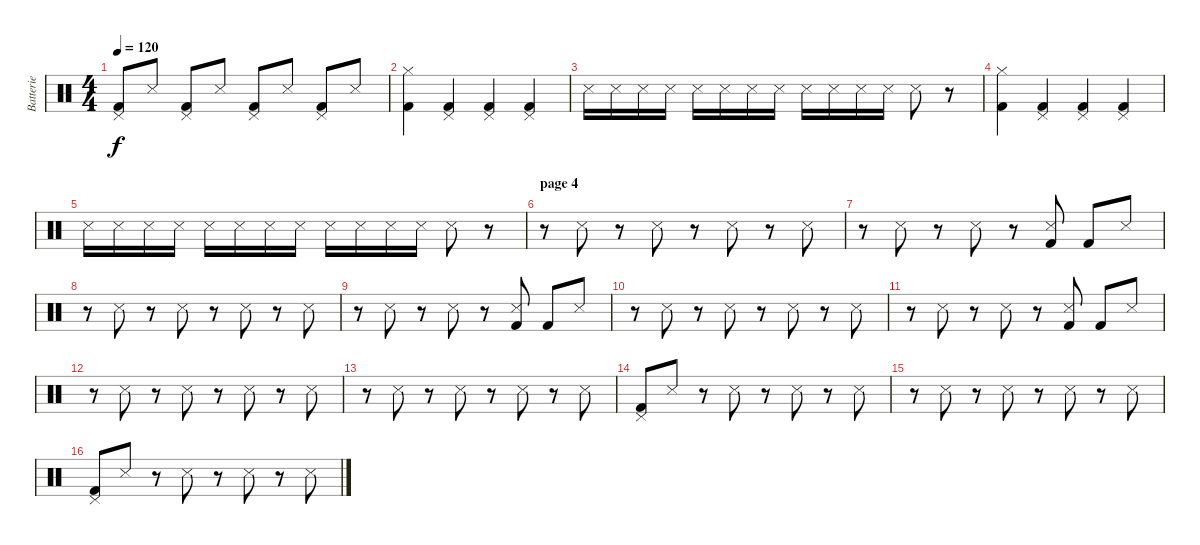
\track ("Batterie" "Batterie") {instrument percussion}
\staff {score}
\articulation defaults
\ts (4 4)
\tempo 120
\clef neutral
\ks c
("Pedal Hi-Hat (hit)" "Kick (hit) 2").8{dy f} "Snare (side stick) 3".8 ("Pedal Hi-Hat (hit)" "Kick (hit) 2").8 "Snare (side stick) 3".8 ("Pedal Hi-Hat (hit)" "Kick (hit) 2").8 "Snare (side stick) 3".8 ("Pedal Hi-Hat (hit)" "Kick (hit) 2").8 "Snare (side stick) 3".8 |
("Hi-Hat (closed)" "Kick (hit) 2").4 ("Pedal Hi-Hat (hit)" "Kick (hit) 2").4 ("Pedal Hi-Hat (hit)" "Kick (hit) 2").4 ("Pedal Hi-Hat (hit)" "Kick (hit) 2").4 |
"Snare (side stick) 3".16 "Snare (side stick) 3".16 "Snare (side stick) 3".16 "Snare (side stick) 3".16 "Snare (side stick) 3".16 "Snare (side stick) 3".16 "Snare (side stick) 3".16 "Snare (side stick) 3".16 "Snare (side stick) 3".16 "Snare (side stick) 3".16 "Snare (side stick) 3".16 "Snare (side stick) 3".16 "Snare (side stick) 3".8 r.8 |
("Hi-Hat (closed)" "Kick (hit) 2").4 ("Pedal Hi-Hat (hit)" "Kick (hit) 2").4 ("Pedal Hi-Hat (hit)" "Kick (hit) 2").4 ("Pedal Hi-Hat (hit)" "Kick (hit) 2").4 |
"Snare (side stick) 3".16 "Snare (side stick) 3".16 "Snare (side stick) 3".16 "Snare (side stick) 3".16 "Snare (side stick) 3".16 "Snare (side stick) 3".16 "Snare (side stick) 3".16 "Snare (side stick) 3".16 "Snare (side stick) 3".16 "Snare (side stick) 3".16 "Snare (side stick) 3".16 "Snare (side stick) 3".16 "Snare (side stick) 3".8 r.8 |
\section ("" "page 4")
r.8 "Snare (side stick) 3".8 r.8 "Snare (side stick) 3".8 r.8 "Snare (side stick) 3".8 r.8 "Snare (side stick) 3".8 |
r.8 "Snare (side stick) 3".8 r.8 "Snare (side stick) 3".8 r.8 ("Snare (side stick) 3" "Kick (hit) 2").8 "Kick (hit) 2".8 "Snare (side stick) 3".8 |
r.8 "Snare (side stick) 3".8 r.8 "Snare (side stick) 3".8 r.8 "Snare (side stick) 3".8 r.8 "Snare (side stick) 3".8 |
r.8 "Snare (side stick) 3".8 r.8 "Snare (side stick) 3".8 r.8 ("Snare (side stick) 3" "Kick (hit) 2").8 "Kick (hit) 2".8 "Snare (side stick) 3".8 |
r.8 "Snare (side stick) 3".8 r.8 "Snare (side stick) 3".8 r.8 "Snare (side stick) 3".8 r.8 "Snare (side stick) 3".8 |
r.8 "Snare (side stick) 3".8 r.8 "Snare (side stick) 3".8 r.8 ("Snare (side stick) 3" "Kick (hit) 2").8 "Kick (hit) 2".8 "Snare (side stick) 3".8 |
r.8 "Snare (side stick) 3".8 r.8 "Snare (side stick) 3".8 r.8 "Snare (side stick) 3".8 r.8 "Snare (side stick) 3".8 |
r.8 "Snare (side stick) 3".8 r.8 "Snare (side stick) 3".8 r.8 "Snare (side stick) 3".8 r.8 "Snare (side stick) 3".8 |
("Pedal Hi-Hat (hit)" "Kick (hit) 2").8 "Snare (side stick) 3".8 r.8 "Snare (side stick) 3".8 r.8 "Snare (side stick) 3".8 r.8 "Snare (side stick) 3".8 |
r.8 "Snare (side stick) 3".8 r.8 "Snare (side stick) 3".8 r.8 "Snare (side stick) 3".8 r.8 "Snare (side stick) 3".8 |
("Pedal Hi-Hat (hit)" "Kick (hit) 2").8 "Snare (side stick) 3".8 r.8 "Snare (side stick) 3".8 r.8 "Snare (side stick) 3".8 r.8 "Snare (side stick) 3".8
